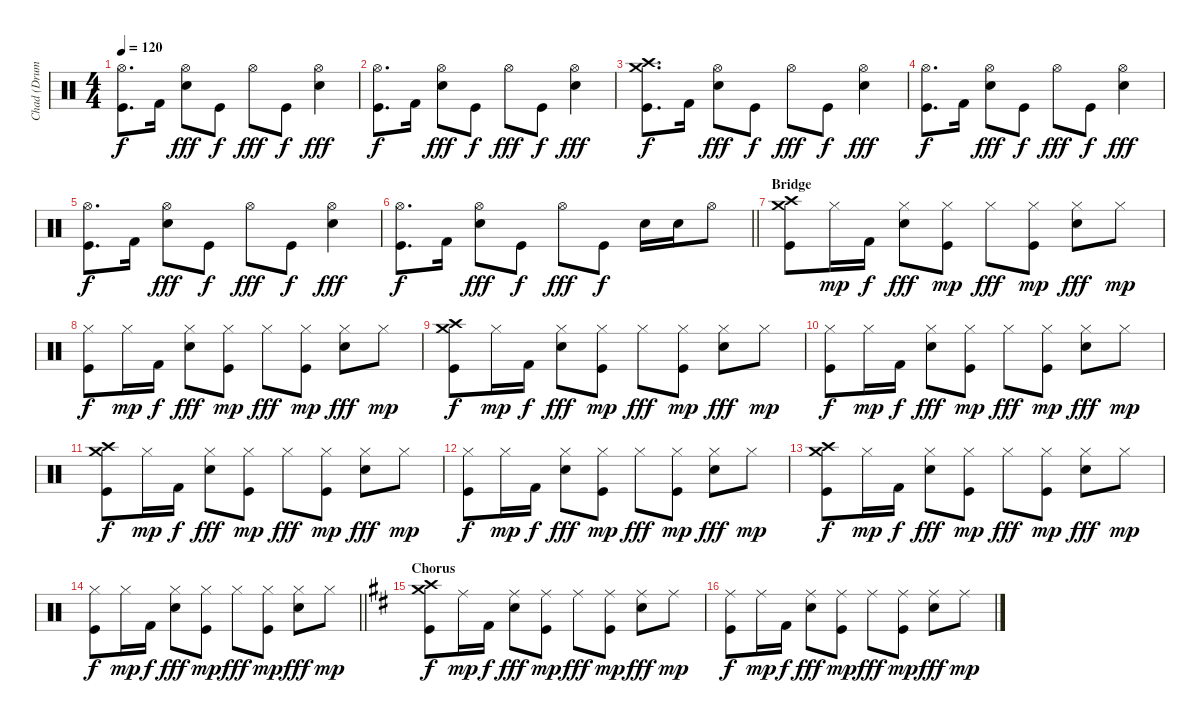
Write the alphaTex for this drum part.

\track ("Chad (Drums)" "Chad (Drum") {instrument percussion}
\staff {score}
\articulation defaults
\ts (4 4)
\tempo 120
\clef neutral
\ks c
("Hi-Hat (open)" "Kick (hit)").8{d dy f} "Kick (hit) 2".16 ("Hi-Hat (open)" "Snare (hit) 2").8{dy fff} "Kick (hit)".8{dy f} "Hi-Hat (open)".8{dy fff} "Kick (hit)".8{dy f} ("Hi-Hat (open)" "Snare (hit) 2").4{dy fff} |
("Hi-Hat (open)" "Kick (hit)").8{d dy f} "Kick (hit) 2".16 ("Hi-Hat (open)" "Snare (hit) 2").8{dy fff} "Kick (hit)".8{dy f} "Hi-Hat (open)".8{dy fff} "Kick (hit)".8{dy f} ("Hi-Hat (open)" "Snare (hit) 2").4{dy fff} |
("Crash high (hit)" "Crash medium (hit)" "Kick (hit)").8{d dy f} "Kick (hit) 2".16 ("Hi-Hat (open)" "Snare (hit) 2").8{dy fff} "Kick (hit)".8{dy f} "Hi-Hat (open)".8{dy fff} "Kick (hit)".8{dy f} ("Hi-Hat (open)" "Snare (hit) 2").4{dy fff} |
("Hi-Hat (open)" "Kick (hit)").8{d dy f} "Kick (hit) 2".16 ("Hi-Hat (open)" "Snare (hit) 2").8{dy fff} "Kick (hit)".8{dy f} "Hi-Hat (open)".8{dy fff} "Kick (hit)".8{dy f} ("Hi-Hat (open)" "Snare (hit) 2").4{dy fff} |
("Hi-Hat (open)" "Kick (hit)").8{d dy f} "Kick (hit) 2".16 ("Hi-Hat (open)" "Snare (hit) 2").8{dy fff} "Kick (hit)".8{dy f} "Hi-Hat (open)".8{dy fff} "Kick (hit)".8{dy f} ("Hi-Hat (open)" "Snare (hit) 2").4{dy fff} |
\barLineRight lightlight
("Hi-Hat (open)" "Kick (hit)").8{d dy f} "Kick (hit) 2".16 ("Hi-Hat (open)" "Snare (hit) 2").8{dy fff} "Kick (hit)".8{dy f} "Hi-Hat (open)".8{dy fff} "Kick (hit)".8{dy f} "Snare (hit) 2".16 "Snare (hit) 2".16 "Hi-Hat (open)".8 |
\section ("" "Bridge")
("Crash high (hit)" "Crash medium (hit)" "Kick (hit)").8 "Hi-Hat (closed)".16{dy mp} "Kick (hit) 2".16{dy f} ("Hi-Hat (closed)" "Snare (hit) 2").8{dy fff} ("Hi-Hat (closed)" "Kick (hit)").8{dy mp} "Hi-Hat (closed)".8{dy fff} ("Hi-Hat (closed)" "Kick (hit)").8{dy mp} ("Hi-Hat (closed)" "Snare (hit) 2").8{dy fff} "Hi-Hat (closed)".8{dy mp} |
("Hi-Hat (closed)" "Kick (hit)").8{dy f} "Hi-Hat (closed)".16{dy mp} "Kick (hit) 2".16{dy f} ("Hi-Hat (closed)" "Snare (hit) 2").8{dy fff} ("Hi-Hat (closed)" "Kick (hit)").8{dy mp} "Hi-Hat (closed)".8{dy fff} ("Hi-Hat (closed)" "Kick (hit)").8{dy mp} ("Hi-Hat (closed)" "Snare (hit) 2").8{dy fff} "Hi-Hat (closed)".8{dy mp} |
("Crash high (hit)" "Crash medium (hit)" "Kick (hit)").8{dy f} "Hi-Hat (closed)".16{dy mp} "Kick (hit) 2".16{dy f} ("Hi-Hat (closed)" "Snare (hit) 2").8{dy fff} ("Hi-Hat (closed)" "Kick (hit)").8{dy mp} "Hi-Hat (closed)".8{dy fff} ("Hi-Hat (closed)" "Kick (hit)").8{dy mp} ("Hi-Hat (closed)" "Snare (hit) 2").8{dy fff} "Hi-Hat (closed)".8{dy mp} |
("Hi-Hat (closed)" "Kick (hit)").8{dy f} "Hi-Hat (closed)".16{dy mp} "Kick (hit) 2".16{dy f} ("Hi-Hat (closed)" "Snare (hit) 2").8{dy fff} ("Hi-Hat (closed)" "Kick (hit)").8{dy mp} "Hi-Hat (closed)".8{dy fff} ("Hi-Hat (closed)" "Kick (hit)").8{dy mp} ("Hi-Hat (closed)" "Snare (hit) 2").8{dy fff} "Hi-Hat (closed)".8{dy mp} |
("Crash high (hit)" "Crash medium (hit)" "Kick (hit)").8{dy f} "Hi-Hat (closed)".16{dy mp} "Kick (hit) 2".16{dy f} ("Hi-Hat (closed)" "Snare (hit) 2").8{dy fff} ("Hi-Hat (closed)" "Kick (hit)").8{dy mp} "Hi-Hat (closed)".8{dy fff} ("Hi-Hat (closed)" "Kick (hit)").8{dy mp} ("Hi-Hat (closed)" "Snare (hit) 2").8{dy fff} "Hi-Hat (closed)".8{dy mp} |
("Hi-Hat (closed)" "Kick (hit)").8{dy f} "Hi-Hat (closed)".16{dy mp} "Kick (hit) 2".16{dy f} ("Hi-Hat (closed)" "Snare (hit) 2").8{dy fff} ("Hi-Hat (closed)" "Kick (hit)").8{dy mp} "Hi-Hat (closed)".8{dy fff} ("Hi-Hat (closed)" "Kick (hit)").8{dy mp} ("Hi-Hat (closed)" "Snare (hit) 2").8{dy fff} "Hi-Hat (closed)".8{dy mp} |
("Crash high (hit)" "Crash medium (hit)" "Kick (hit)").8{dy f} "Hi-Hat (closed)".16{dy mp} "Kick (hit) 2".16{dy f} ("Hi-Hat (closed)" "Snare (hit) 2").8{dy fff} ("Hi-Hat (closed)" "Kick (hit)").8{dy mp} "Hi-Hat (closed)".8{dy fff} ("Hi-Hat (closed)" "Kick (hit)").8{dy mp} ("Hi-Hat (closed)" "Snare (hit) 2").8{dy fff} "Hi-Hat (closed)".8{dy mp} |
\barLineRight lightlight
("Hi-Hat (closed)" "Kick (hit)").8{dy f} "Hi-Hat (closed)".16{dy mp} "Kick (hit) 2".16{dy f} ("Hi-Hat (closed)" "Snare (hit) 2").8{dy fff} ("Hi-Hat (closed)" "Kick (hit)").8{dy mp} "Hi-Hat (closed)".8{dy fff} ("Hi-Hat (closed)" "Kick (hit)").8{dy mp} ("Hi-Hat (closed)" "Snare (hit) 2").8{dy fff} "Hi-Hat (closed)".8{dy mp} |
\section ("" "Chorus")
\ks d
("Crash high (hit)" "Crash medium (hit)" "Kick (hit)").8{dy f} "Ride (middle)".16{dy mp} "Kick (hit) 2".16{dy f} ("Ride (middle)" "Snare (hit) 2").8{dy fff} ("Ride (middle)" "Kick (hit)").8{dy mp} "Ride (middle)".8{dy fff} ("Ride (middle)" "Kick (hit)").8{dy mp} ("Ride (middle)" "Snare (hit) 2").8{dy fff} "Ride (middle)".8{dy mp} |
("Ride (middle)" "Kick (hit)").8{dy f} "Ride (middle)".16{dy mp} "Kick (hit) 2".16{dy f} ("Ride (middle)" "Snare (hit) 2").8{dy fff} ("Ride (middle)" "Kick (hit)").8{dy mp} "Ride (middle)".8{dy fff} ("Ride (middle)" "Kick (hit)").8{dy mp} ("Ride (middle)" "Snare (hit) 2").8{dy fff} "Ride (middle)".8{dy mp}
